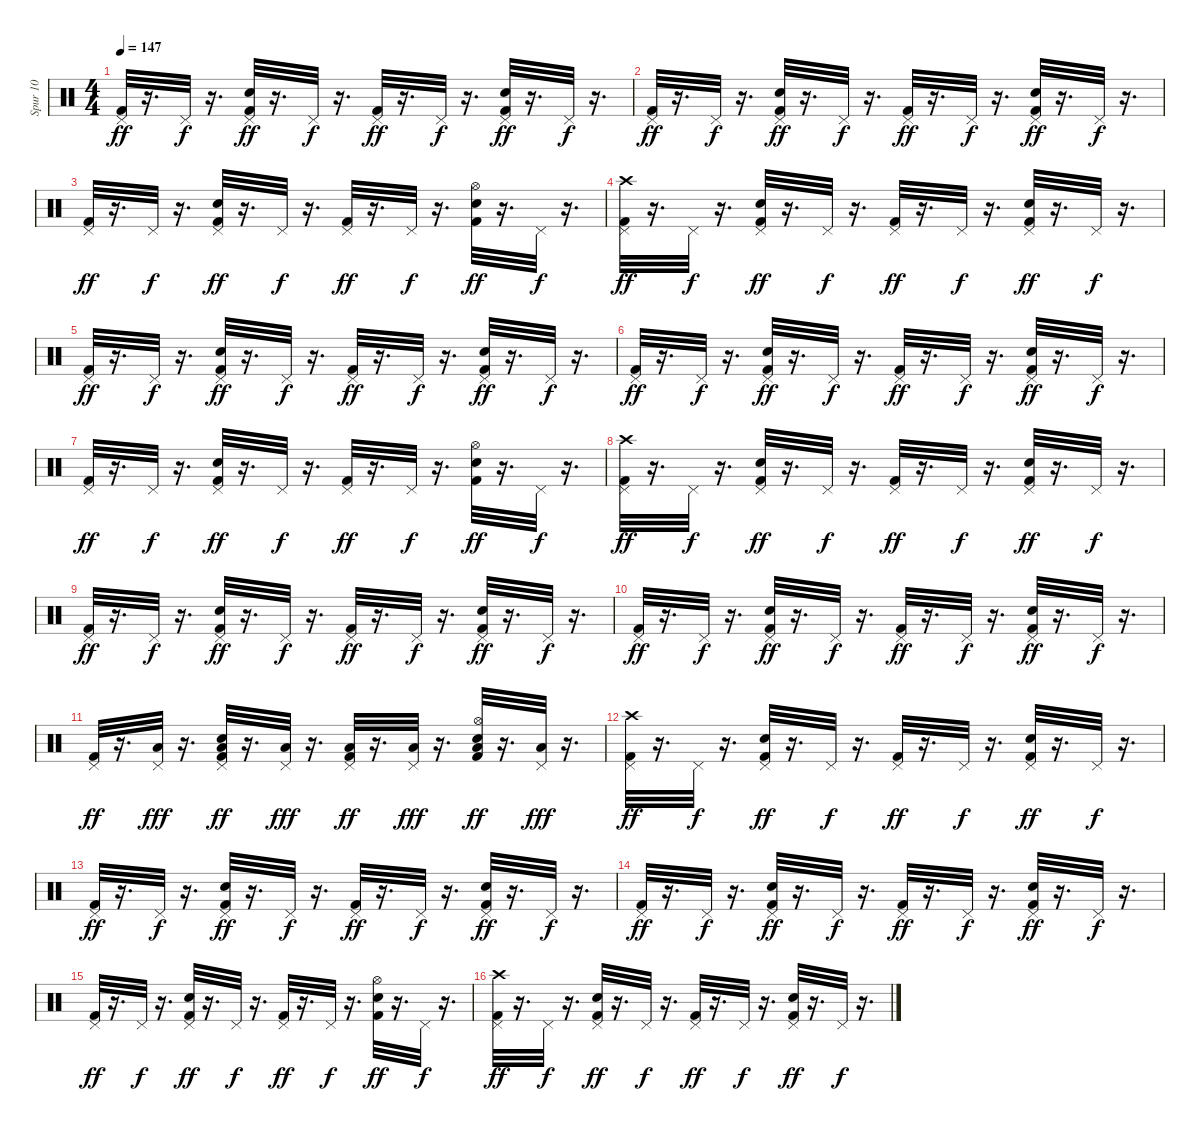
\track ("Spur 10" "Spur 10") {instrument percussion}
\staff {score}
\articulation defaults
\ts (4 4)
\tempo 147
\clef neutral
\ks c
("Pedal Hi-Hat (hit)" "Kick (hit) 2").32{dy ff} r.16{d} "Pedal Hi-Hat (hit)".32{dy f} r.16{d} ("Snare (hit) 2" "Kick (hit) 2" "Pedal Hi-Hat (hit)").32{dy ff} r.16{d} "Pedal Hi-Hat (hit)".32{dy f} r.16{d} ("Kick (hit) 2" "Pedal Hi-Hat (hit)").32{dy ff} r.16{d} "Pedal Hi-Hat (hit)".32{dy f} r.16{d} ("Snare (hit) 2" "Pedal Hi-Hat (hit)" "Kick (hit) 2").32{dy ff} r.16{d} "Pedal Hi-Hat (hit)".32{dy f} r.16{d} |
("Pedal Hi-Hat (hit)" "Kick (hit) 2").32{dy ff} r.16{d} "Pedal Hi-Hat (hit)".32{dy f} r.16{d} ("Snare (hit) 2" "Kick (hit) 2" "Pedal Hi-Hat (hit)").32{dy ff} r.16{d} "Pedal Hi-Hat (hit)".32{dy f} r.16{d} ("Kick (hit) 2" "Pedal Hi-Hat (hit)").32{dy ff} r.16{d} "Pedal Hi-Hat (hit)".32{dy f} r.16{d} ("Snare (hit) 2" "Pedal Hi-Hat (hit)" "Kick (hit) 2").32{dy ff} r.16{d} "Pedal Hi-Hat (hit)".32{dy f} r.16{d} |
("Pedal Hi-Hat (hit)" "Kick (hit) 2").32{dy ff} r.16{d} "Pedal Hi-Hat (hit)".32{dy f} r.16{d} ("Snare (hit) 2" "Kick (hit) 2" "Pedal Hi-Hat (hit)").32{dy ff} r.16{d} "Pedal Hi-Hat (hit)".32{dy f} r.16{d} ("Kick (hit) 2" "Pedal Hi-Hat (hit)").32{dy ff} r.16{d} "Pedal Hi-Hat (hit)".32{dy f} r.16{d} ("Snare (hit) 2" "Hi-Hat (open)" "Kick (hit) 2").32{dy ff} r.16{d} "Pedal Hi-Hat (hit)".32{dy f} r.16{d} |
("Pedal Hi-Hat (hit)" "Kick (hit) 2" "Crash high (hit)").32{dy ff} r.16{d} "Pedal Hi-Hat (hit)".32{dy f} r.16{d} ("Snare (hit) 2" "Kick (hit) 2" "Pedal Hi-Hat (hit)").32{dy ff} r.16{d} "Pedal Hi-Hat (hit)".32{dy f} r.16{d} ("Kick (hit) 2" "Pedal Hi-Hat (hit)").32{dy ff} r.16{d} "Pedal Hi-Hat (hit)".32{dy f} r.16{d} ("Snare (hit) 2" "Pedal Hi-Hat (hit)" "Kick (hit) 2").32{dy ff} r.16{d} "Pedal Hi-Hat (hit)".32{dy f} r.16{d} |
("Pedal Hi-Hat (hit)" "Kick (hit) 2").32{dy ff} r.16{d} "Pedal Hi-Hat (hit)".32{dy f} r.16{d} ("Snare (hit) 2" "Kick (hit) 2" "Pedal Hi-Hat (hit)").32{dy ff} r.16{d} "Pedal Hi-Hat (hit)".32{dy f} r.16{d} ("Kick (hit) 2" "Pedal Hi-Hat (hit)").32{dy ff} r.16{d} "Pedal Hi-Hat (hit)".32{dy f} r.16{d} ("Snare (hit) 2" "Pedal Hi-Hat (hit)" "Kick (hit) 2").32{dy ff} r.16{d} "Pedal Hi-Hat (hit)".32{dy f} r.16{d} |
("Pedal Hi-Hat (hit)" "Kick (hit) 2").32{dy ff} r.16{d} "Pedal Hi-Hat (hit)".32{dy f} r.16{d} ("Snare (hit) 2" "Kick (hit) 2" "Pedal Hi-Hat (hit)").32{dy ff} r.16{d} "Pedal Hi-Hat (hit)".32{dy f} r.16{d} ("Kick (hit) 2" "Pedal Hi-Hat (hit)").32{dy ff} r.16{d} "Pedal Hi-Hat (hit)".32{dy f} r.16{d} ("Snare (hit) 2" "Pedal Hi-Hat (hit)" "Kick (hit) 2").32{dy ff} r.16{d} "Pedal Hi-Hat (hit)".32{dy f} r.16{d} |
("Pedal Hi-Hat (hit)" "Kick (hit) 2").32{dy ff} r.16{d} "Pedal Hi-Hat (hit)".32{dy f} r.16{d} ("Snare (hit) 2" "Kick (hit) 2" "Pedal Hi-Hat (hit)").32{dy ff} r.16{d} "Pedal Hi-Hat (hit)".32{dy f} r.16{d} ("Kick (hit) 2" "Pedal Hi-Hat (hit)").32{dy ff} r.16{d} "Pedal Hi-Hat (hit)".32{dy f} r.16{d} ("Snare (hit) 2" "Hi-Hat (open)" "Kick (hit) 2").32{dy ff} r.16{d} "Pedal Hi-Hat (hit)".32{dy f} r.16{d} |
("Pedal Hi-Hat (hit)" "Kick (hit) 2" "Crash high (hit)").32{dy ff} r.16{d} "Pedal Hi-Hat (hit)".32{dy f} r.16{d} ("Snare (hit) 2" "Kick (hit) 2" "Pedal Hi-Hat (hit)").32{dy ff} r.16{d} "Pedal Hi-Hat (hit)".32{dy f} r.16{d} ("Kick (hit) 2" "Pedal Hi-Hat (hit)").32{dy ff} r.16{d} "Pedal Hi-Hat (hit)".32{dy f} r.16{d} ("Snare (hit) 2" "Pedal Hi-Hat (hit)" "Kick (hit) 2").32{dy ff} r.16{d} "Pedal Hi-Hat (hit)".32{dy f} r.16{d} |
("Pedal Hi-Hat (hit)" "Kick (hit) 2").32{dy ff} r.16{d} "Pedal Hi-Hat (hit)".32{dy f} r.16{d} ("Snare (hit) 2" "Kick (hit) 2" "Pedal Hi-Hat (hit)").32{dy ff} r.16{d} "Pedal Hi-Hat (hit)".32{dy f} r.16{d} ("Kick (hit) 2" "Pedal Hi-Hat (hit)").32{dy ff} r.16{d} "Pedal Hi-Hat (hit)".32{dy f} r.16{d} ("Snare (hit) 2" "Pedal Hi-Hat (hit)" "Kick (hit) 2").32{dy ff} r.16{d} "Pedal Hi-Hat (hit)".32{dy f} r.16{d} |
("Pedal Hi-Hat (hit)" "Kick (hit) 2").32{dy ff} r.16{d} "Pedal Hi-Hat (hit)".32{dy f} r.16{d} ("Snare (hit) 2" "Kick (hit) 2" "Pedal Hi-Hat (hit)").32{dy ff} r.16{d} "Pedal Hi-Hat (hit)".32{dy f} r.16{d} ("Kick (hit) 2" "Pedal Hi-Hat (hit)").32{dy ff} r.16{d} "Pedal Hi-Hat (hit)".32{dy f} r.16{d} ("Snare (hit) 2" "Pedal Hi-Hat (hit)" "Kick (hit) 2").32{dy ff} r.16{d} "Pedal Hi-Hat (hit)".32{dy f} r.16{d} |
("Pedal Hi-Hat (hit)" "Kick (hit) 2").32{dy ff} r.16{d} ("Low Tom (hit)" "Pedal Hi-Hat (hit)").32{dy fff} r.16{d} ("Low Tom (hit)" "Snare (hit) 2" "Kick (hit) 2" "Pedal Hi-Hat (hit)").32{dy ff} r.16{d} ("Low Tom (hit)" "Pedal Hi-Hat (hit)").32{dy fff} r.16{d} ("Low Tom (hit)" "Kick (hit) 2" "Pedal Hi-Hat (hit)").32{dy ff} r.16{d} ("Low Floor Tom (hit)" "Pedal Hi-Hat (hit)").32{dy fff} r.16{d} ("Low Floor Tom (hit)" "Snare (hit) 2" "Hi-Hat (open)" "Kick (hit) 2").32{dy ff} r.16{d} ("Low Floor Tom (hit)" "Pedal Hi-Hat (hit)").32{dy fff} r.16{d} |
("Pedal Hi-Hat (hit)" "Kick (hit) 2" "Crash high (hit)").32{dy ff} r.16{d} "Pedal Hi-Hat (hit)".32{dy f} r.16{d} ("Snare (hit) 2" "Kick (hit) 2" "Pedal Hi-Hat (hit)").32{dy ff} r.16{d} "Pedal Hi-Hat (hit)".32{dy f} r.16{d} ("Kick (hit) 2" "Pedal Hi-Hat (hit)").32{dy ff} r.16{d} "Pedal Hi-Hat (hit)".32{dy f} r.16{d} ("Snare (hit) 2" "Pedal Hi-Hat (hit)" "Kick (hit) 2").32{dy ff} r.16{d} "Pedal Hi-Hat (hit)".32{dy f} r.16{d} |
("Pedal Hi-Hat (hit)" "Kick (hit) 2").32{dy ff} r.16{d} "Pedal Hi-Hat (hit)".32{dy f} r.16{d} ("Snare (hit) 2" "Kick (hit) 2" "Pedal Hi-Hat (hit)").32{dy ff} r.16{d} "Pedal Hi-Hat (hit)".32{dy f} r.16{d} ("Kick (hit) 2" "Pedal Hi-Hat (hit)").32{dy ff} r.16{d} "Pedal Hi-Hat (hit)".32{dy f} r.16{d} ("Snare (hit) 2" "Pedal Hi-Hat (hit)" "Kick (hit) 2").32{dy ff} r.16{d} "Pedal Hi-Hat (hit)".32{dy f} r.16{d} |
("Pedal Hi-Hat (hit)" "Kick (hit) 2").32{dy ff} r.16{d} "Pedal Hi-Hat (hit)".32{dy f} r.16{d} ("Snare (hit) 2" "Kick (hit) 2" "Pedal Hi-Hat (hit)").32{dy ff} r.16{d} "Pedal Hi-Hat (hit)".32{dy f} r.16{d} ("Kick (hit) 2" "Pedal Hi-Hat (hit)").32{dy ff} r.16{d} "Pedal Hi-Hat (hit)".32{dy f} r.16{d} ("Snare (hit) 2" "Pedal Hi-Hat (hit)" "Kick (hit) 2").32{dy ff} r.16{d} "Pedal Hi-Hat (hit)".32{dy f} r.16{d} |
("Pedal Hi-Hat (hit)" "Kick (hit) 2").32{dy ff} r.16{d} "Pedal Hi-Hat (hit)".32{dy f} r.16{d} ("Snare (hit) 2" "Kick (hit) 2" "Pedal Hi-Hat (hit)").32{dy ff} r.16{d} "Pedal Hi-Hat (hit)".32{dy f} r.16{d} ("Kick (hit) 2" "Pedal Hi-Hat (hit)").32{dy ff} r.16{d} "Pedal Hi-Hat (hit)".32{dy f} r.16{d} ("Snare (hit) 2" "Hi-Hat (open)" "Kick (hit) 2").32{dy ff} r.16{d} "Pedal Hi-Hat (hit)".32{dy f} r.16{d} |
("Pedal Hi-Hat (hit)" "Kick (hit) 2" "Crash high (hit)").32{dy ff} r.16{d} "Pedal Hi-Hat (hit)".32{dy f} r.16{d} ("Snare (hit) 2" "Kick (hit) 2" "Pedal Hi-Hat (hit)").32{dy ff} r.16{d} "Pedal Hi-Hat (hit)".32{dy f} r.16{d} ("Kick (hit) 2" "Pedal Hi-Hat (hit)").32{dy ff} r.16{d} "Pedal Hi-Hat (hit)".32{dy f} r.16{d} ("Snare (hit) 2" "Pedal Hi-Hat (hit)" "Kick (hit) 2").32{dy ff} r.16{d} "Pedal Hi-Hat (hit)".32{dy f} r.16{d}
